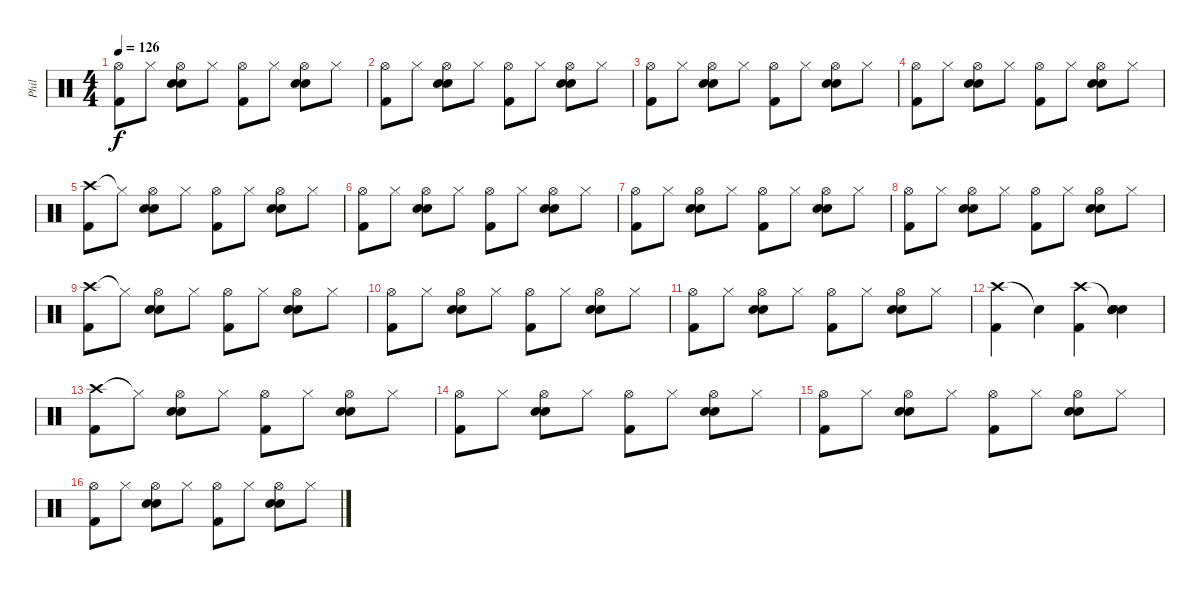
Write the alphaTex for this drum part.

\track ("Phil" "Phil") {instrument percussion}
\staff {score}
\articulation defaults
\ts (4 4)
\tempo 126
\clef neutral
\ks c
("Hi-Hat (open)" "Kick (hit) 2").8{dy f} "Hi-Hat (closed)".8 ("Hi-Hat (open)" "Snare (hit) 2" "Electric Snare (hit)").8 "Hi-Hat (closed)".8 ("Hi-Hat (open)" "Kick (hit) 2").8 "Hi-Hat (closed)".8 ("Hi-Hat (open)" "Snare (hit) 2" "Electric Snare (hit)").8 "Hi-Hat (closed)".8 |
("Hi-Hat (open)" "Kick (hit) 2").8 "Hi-Hat (closed)".8 ("Hi-Hat (open)" "Snare (hit) 2" "Electric Snare (hit)").8 "Hi-Hat (closed)".8 ("Hi-Hat (open)" "Kick (hit) 2").8 "Hi-Hat (closed)".8 ("Hi-Hat (open)" "Snare (hit) 2" "Electric Snare (hit)").8 "Hi-Hat (closed)".8 |
("Hi-Hat (open)" "Kick (hit) 2").8 "Hi-Hat (closed)".8 ("Hi-Hat (open)" "Snare (hit) 2" "Electric Snare (hit)").8 "Hi-Hat (closed)".8 ("Hi-Hat (open)" "Kick (hit) 2").8 "Hi-Hat (closed)".8 ("Hi-Hat (open)" "Snare (hit) 2" "Electric Snare (hit)").8 "Hi-Hat (closed)".8 |
("Hi-Hat (open)" "Kick (hit) 2").8 "Hi-Hat (closed)".8 ("Hi-Hat (open)" "Snare (hit) 2" "Electric Snare (hit)").8 "Hi-Hat (closed)".8 ("Hi-Hat (open)" "Kick (hit) 2").8 "Hi-Hat (closed)".8 ("Hi-Hat (open)" "Snare (hit) 2" "Electric Snare (hit)").8 "Hi-Hat (closed)".8 |
("Crash high (hit)" "Kick (hit) 2").8 "Hi-Hat (closed)"{t}.8 ("Hi-Hat (open)" "Snare (hit) 2" "Electric Snare (hit)").8 "Hi-Hat (closed)".8 ("Hi-Hat (open)" "Kick (hit) 2").8 "Hi-Hat (closed)".8 ("Hi-Hat (open)" "Snare (hit) 2" "Electric Snare (hit)").8 "Hi-Hat (closed)".8 |
("Hi-Hat (open)" "Kick (hit) 2").8 "Hi-Hat (closed)".8 ("Hi-Hat (open)" "Snare (hit) 2" "Electric Snare (hit)").8 "Hi-Hat (closed)".8 ("Hi-Hat (open)" "Kick (hit) 2").8 "Hi-Hat (closed)".8 ("Hi-Hat (open)" "Snare (hit) 2" "Electric Snare (hit)").8 "Hi-Hat (closed)".8 |
("Hi-Hat (open)" "Kick (hit) 2").8 "Hi-Hat (closed)".8 ("Hi-Hat (open)" "Snare (hit) 2" "Electric Snare (hit)").8 "Hi-Hat (closed)".8 ("Hi-Hat (open)" "Kick (hit) 2").8 "Hi-Hat (closed)".8 ("Hi-Hat (open)" "Snare (hit) 2" "Electric Snare (hit)").8 "Hi-Hat (closed)".8 |
("Hi-Hat (open)" "Kick (hit) 2").8 "Hi-Hat (closed)".8 ("Hi-Hat (open)" "Snare (hit) 2" "Electric Snare (hit)").8 "Hi-Hat (closed)".8 ("Hi-Hat (open)" "Kick (hit) 2").8 "Hi-Hat (closed)".8 ("Hi-Hat (open)" "Snare (hit) 2" "Electric Snare (hit)").8 "Hi-Hat (closed)".8 |
("Crash high (hit)" "Kick (hit) 2").8 "Hi-Hat (closed)"{t}.8 ("Hi-Hat (open)" "Snare (hit) 2" "Electric Snare (hit)").8 "Hi-Hat (closed)".8 ("Hi-Hat (open)" "Kick (hit) 2").8 "Hi-Hat (closed)".8 ("Hi-Hat (open)" "Snare (hit) 2" "Electric Snare (hit)").8 "Hi-Hat (closed)".8 |
("Hi-Hat (open)" "Kick (hit) 2").8 "Hi-Hat (closed)".8 ("Hi-Hat (open)" "Snare (hit) 2" "Electric Snare (hit)").8 "Hi-Hat (closed)".8 ("Hi-Hat (open)" "Kick (hit) 2").8 "Hi-Hat (closed)".8 ("Hi-Hat (open)" "Snare (hit) 2" "Electric Snare (hit)").8 "Hi-Hat (closed)".8 |
("Hi-Hat (open)" "Kick (hit) 2").8 "Hi-Hat (closed)".8 ("Hi-Hat (open)" "Snare (hit) 2" "Electric Snare (hit)").8 "Hi-Hat (closed)".8 ("Hi-Hat (open)" "Kick (hit) 2").8 "Hi-Hat (closed)".8 ("Hi-Hat (open)" "Snare (hit) 2" "Electric Snare (hit)").8 "Hi-Hat (closed)".8 |
("Crash high (hit)" "Kick (hit) 2").4 "Snare (hit)"{t}.4 ("Crash high (hit)" "Kick (hit) 2").4 ("Snare (hit)"{t} "Snare (hit) 2" "Electric Snare (hit)").4 |
("Crash high (hit)" "Kick (hit) 2").8 "Hi-Hat (closed)"{t}.8 ("Hi-Hat (open)" "Snare (hit) 2" "Electric Snare (hit)").8 "Hi-Hat (closed)".8 ("Hi-Hat (open)" "Kick (hit) 2").8 "Hi-Hat (closed)".8 ("Hi-Hat (open)" "Snare (hit) 2" "Electric Snare (hit)").8 "Hi-Hat (closed)".8 |
("Hi-Hat (open)" "Kick (hit) 2").8 "Hi-Hat (closed)".8 ("Hi-Hat (open)" "Snare (hit) 2" "Electric Snare (hit)").8 "Hi-Hat (closed)".8 ("Hi-Hat (open)" "Kick (hit) 2").8 "Hi-Hat (closed)".8 ("Hi-Hat (open)" "Snare (hit) 2" "Electric Snare (hit)").8 "Hi-Hat (closed)".8 |
("Hi-Hat (open)" "Kick (hit) 2").8 "Hi-Hat (closed)".8 ("Hi-Hat (open)" "Snare (hit) 2" "Electric Snare (hit)").8 "Hi-Hat (closed)".8 ("Hi-Hat (open)" "Kick (hit) 2").8 "Hi-Hat (closed)".8 ("Hi-Hat (open)" "Snare (hit) 2" "Electric Snare (hit)").8 "Hi-Hat (closed)".8 |
("Hi-Hat (open)" "Kick (hit) 2").8 "Hi-Hat (closed)".8 ("Hi-Hat (open)" "Snare (hit) 2" "Electric Snare (hit)").8 "Hi-Hat (closed)".8 ("Hi-Hat (open)" "Kick (hit) 2").8 "Hi-Hat (closed)".8 ("Hi-Hat (open)" "Snare (hit) 2" "Electric Snare (hit)").8 "Hi-Hat (closed)".8
